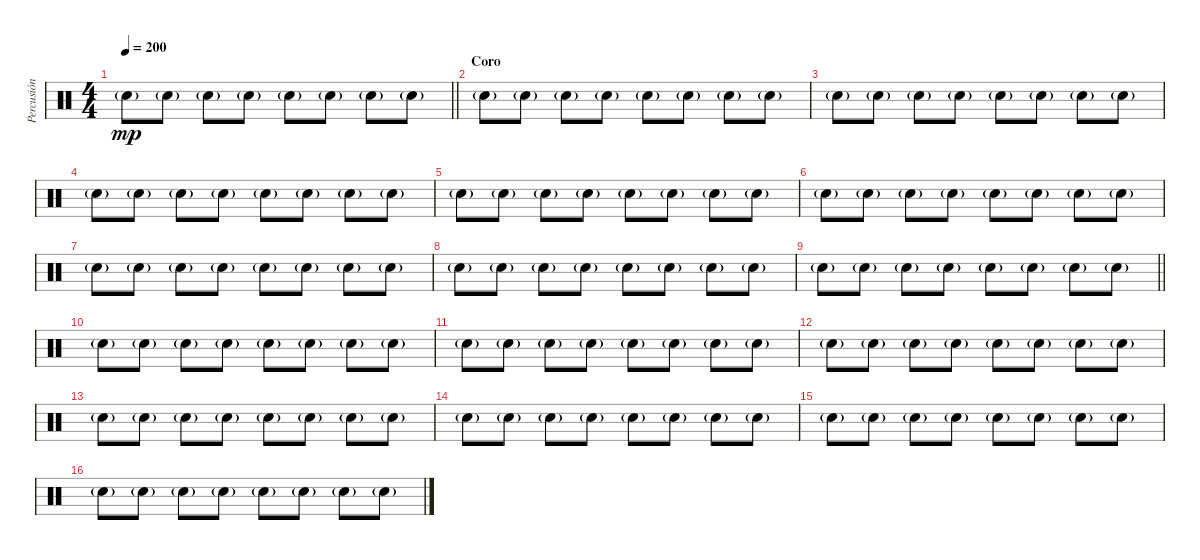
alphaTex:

\track ("Percusión" "Percusión") {instrument percussion}
\staff {score}
\articulation defaults
\ts (4 4)
\tempo 200
\clef neutral
\barLineRight lightlight
\ks c "Hand Clap (hit)"{g}.8{dy mp} "Hand Clap (hit)"{g}.8 "Hand Clap (hit)"{g}.8 "Hand Clap (hit)"{g}.8 "Hand Clap (hit)"{g}.8 "Hand Clap (hit)"{g}.8 "Hand Clap (hit)"{g}.8 "Hand Clap (hit)"{g}.8
|
\section ("" "Coro")
"Hand Clap (hit)"{g}.8 "Hand Clap (hit)"{g}.8 "Hand Clap (hit)"{g}.8 "Hand Clap (hit)"{g}.8 "Hand Clap (hit)"{g}.8 "Hand Clap (hit)"{g}.8 "Hand Clap (hit)"{g}.8 "Hand Clap (hit)"{g}.8 |
"Hand Clap (hit)"{g}.8 "Hand Clap (hit)"{g}.8 "Hand Clap (hit)"{g}.8 "Hand Clap (hit)"{g}.8 "Hand Clap (hit)"{g}.8 "Hand Clap (hit)"{g}.8 "Hand Clap (hit)"{g}.8 "Hand Clap (hit)"{g}.8 |
"Hand Clap (hit)"{g}.8 "Hand Clap (hit)"{g}.8 "Hand Clap (hit)"{g}.8 "Hand Clap (hit)"{g}.8 "Hand Clap (hit)"{g}.8 "Hand Clap (hit)"{g}.8 "Hand Clap (hit)"{g}.8 "Hand Clap (hit)"{g}.8 |
"Hand Clap (hit)"{g}.8 "Hand Clap (hit)"{g}.8 "Hand Clap (hit)"{g}.8 "Hand Clap (hit)"{g}.8 "Hand Clap (hit)"{g}.8 "Hand Clap (hit)"{g}.8 "Hand Clap (hit)"{g}.8 "Hand Clap (hit)"{g}.8 |
"Hand Clap (hit)"{g}.8 "Hand Clap (hit)"{g}.8 "Hand Clap (hit)"{g}.8 "Hand Clap (hit)"{g}.8 "Hand Clap (hit)"{g}.8 "Hand Clap (hit)"{g}.8 "Hand Clap (hit)"{g}.8 "Hand Clap (hit)"{g}.8 |
"Hand Clap (hit)"{g}.8 "Hand Clap (hit)"{g}.8 "Hand Clap (hit)"{g}.8 "Hand Clap (hit)"{g}.8 "Hand Clap (hit)"{g}.8 "Hand Clap (hit)"{g}.8 "Hand Clap (hit)"{g}.8 "Hand Clap (hit)"{g}.8 |
"Hand Clap (hit)"{g}.8 "Hand Clap (hit)"{g}.8 "Hand Clap (hit)"{g}.8 "Hand Clap (hit)"{g}.8 "Hand Clap (hit)"{g}.8 "Hand Clap (hit)"{g}.8 "Hand Clap (hit)"{g}.8 "Hand Clap (hit)"{g}.8 |
\barLineRight lightlight "Hand Clap (hit)"{g}.8 "Hand Clap (hit)"{g}.8 "Hand Clap (hit)"{g}.8 "Hand Clap (hit)"{g}.8 "Hand Clap (hit)"{g}.8 "Hand Clap (hit)"{g}.8 "Hand Clap (hit)"{g}.8 "Hand Clap (hit)"{g}.8
|
\section ("" "")
"Hand Clap (hit)"{g}.8 "Hand Clap (hit)"{g}.8 "Hand Clap (hit)"{g}.8 "Hand Clap (hit)"{g}.8 "Hand Clap (hit)"{g}.8 "Hand Clap (hit)"{g}.8 "Hand Clap (hit)"{g}.8 "Hand Clap (hit)"{g}.8 |
"Hand Clap (hit)"{g}.8 "Hand Clap (hit)"{g}.8 "Hand Clap (hit)"{g}.8 "Hand Clap (hit)"{g}.8 "Hand Clap (hit)"{g}.8 "Hand Clap (hit)"{g}.8 "Hand Clap (hit)"{g}.8 "Hand Clap (hit)"{g}.8 |
"Hand Clap (hit)"{g}.8 "Hand Clap (hit)"{g}.8 "Hand Clap (hit)"{g}.8 "Hand Clap (hit)"{g}.8 "Hand Clap (hit)"{g}.8 "Hand Clap (hit)"{g}.8 "Hand Clap (hit)"{g}.8 "Hand Clap (hit)"{g}.8 |
"Hand Clap (hit)"{g}.8 "Hand Clap (hit)"{g}.8 "Hand Clap (hit)"{g}.8 "Hand Clap (hit)"{g}.8 "Hand Clap (hit)"{g}.8 "Hand Clap (hit)"{g}.8 "Hand Clap (hit)"{g}.8 "Hand Clap (hit)"{g}.8 |
"Hand Clap (hit)"{g}.8 "Hand Clap (hit)"{g}.8 "Hand Clap (hit)"{g}.8 "Hand Clap (hit)"{g}.8 "Hand Clap (hit)"{g}.8 "Hand Clap (hit)"{g}.8 "Hand Clap (hit)"{g}.8 "Hand Clap (hit)"{g}.8 |
"Hand Clap (hit)"{g}.8 "Hand Clap (hit)"{g}.8 "Hand Clap (hit)"{g}.8 "Hand Clap (hit)"{g}.8 "Hand Clap (hit)"{g}.8 "Hand Clap (hit)"{g}.8 "Hand Clap (hit)"{g}.8 "Hand Clap (hit)"{g}.8 |
"Hand Clap (hit)"{g}.8 "Hand Clap (hit)"{g}.8 "Hand Clap (hit)"{g}.8 "Hand Clap (hit)"{g}.8 "Hand Clap (hit)"{g}.8 "Hand Clap (hit)"{g}.8 "Hand Clap (hit)"{g}.8 "Hand Clap (hit)"{g}.8
